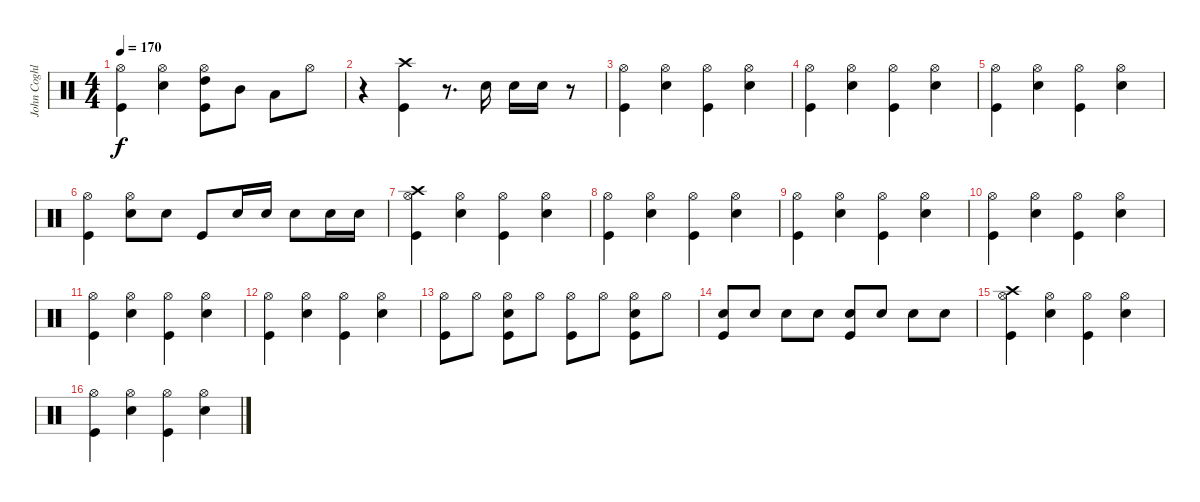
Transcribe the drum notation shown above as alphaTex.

\track ("John Coghlan" "John Coghl") {instrument percussion}
\staff {score}
\articulation defaults
\ts (4 4)
\tempo 170
\clef neutral
\ks c
("Hi-Hat (open)" "Kick (hit)").4{dy f} ("Electric Snare (hit)" "Hi-Hat (open)").4 ("High Tom (hit)" "Hi-Hat (open)" "Kick (hit)").8 "Mid Tom (hit)".8 "Low Tom (hit)".8 "Hi-Hat (open)".8 |
r.4 ("Crash high (hit)" "Kick (hit)").4 r.8{d} "Electric Snare (hit)".16 "Electric Snare (hit)".16 "Electric Snare (hit)".16 r.8 |
("Hi-Hat (open)" "Kick (hit)").4 ("Electric Snare (hit)" "Hi-Hat (open)").4 ("Hi-Hat (open)" "Kick (hit)").4 ("Electric Snare (hit)" "Hi-Hat (open)").4 |
("Hi-Hat (open)" "Kick (hit)").4 ("Electric Snare (hit)" "Hi-Hat (open)").4 ("Hi-Hat (open)" "Kick (hit)").4 ("Electric Snare (hit)" "Hi-Hat (open)").4 |
("Hi-Hat (open)" "Kick (hit)").4 ("Electric Snare (hit)" "Hi-Hat (open)").4 ("Hi-Hat (open)" "Kick (hit)").4 ("Electric Snare (hit)" "Hi-Hat (open)").4 |
("Hi-Hat (open)" "Kick (hit)").4 ("Electric Snare (hit)" "Hi-Hat (open)").8 "Electric Snare (hit)".8 "Kick (hit)".8 "Electric Snare (hit)".16 "Electric Snare (hit)".16 "Electric Snare (hit)".8 "Electric Snare (hit)".16 "Electric Snare (hit)".16 |
("Crash high (hit)" "Hi-Hat (open)" "Kick (hit)").4 ("Electric Snare (hit)" "Hi-Hat (open)").4 ("Hi-Hat (open)" "Kick (hit)").4 ("Electric Snare (hit)" "Hi-Hat (open)").4 |
("Hi-Hat (open)" "Kick (hit)").4 ("Electric Snare (hit)" "Hi-Hat (open)").4 ("Hi-Hat (open)" "Kick (hit)").4 ("Electric Snare (hit)" "Hi-Hat (open)").4 |
("Hi-Hat (open)" "Kick (hit)").4 ("Electric Snare (hit)" "Hi-Hat (open)").4 ("Hi-Hat (open)" "Kick (hit)").4 ("Electric Snare (hit)" "Hi-Hat (open)").4 |
("Hi-Hat (open)" "Kick (hit)").4 ("Electric Snare (hit)" "Hi-Hat (open)").4 ("Hi-Hat (open)" "Kick (hit)").4 ("Electric Snare (hit)" "Hi-Hat (open)").4 |
("Hi-Hat (open)" "Kick (hit)").4 ("Electric Snare (hit)" "Hi-Hat (open)").4 ("Hi-Hat (open)" "Kick (hit)").4 ("Electric Snare (hit)" "Hi-Hat (open)").4 |
("Hi-Hat (open)" "Kick (hit)").4 ("Electric Snare (hit)" "Hi-Hat (open)").4 ("Hi-Hat (open)" "Kick (hit)").4 ("Electric Snare (hit)" "Hi-Hat (open)").4 |
("Hi-Hat (open)" "Kick (hit)").8 "Hi-Hat (open)".8 ("Electric Snare (hit)" "Hi-Hat (open)" "Kick (hit)").8 "Hi-Hat (open)".8 ("Hi-Hat (open)" "Kick (hit)").8 "Hi-Hat (open)".8 ("Electric Snare (hit)" "Hi-Hat (open)" "Kick (hit)").8 "Hi-Hat (open)".8 |
("Electric Snare (hit)" "Kick (hit)").8 "Electric Snare (hit)".8 "Electric Snare (hit)".8 "Electric Snare (hit)".8 ("Electric Snare (hit)" "Kick (hit)").8 "Electric Snare (hit)".8 "Electric Snare (hit)".8 "Electric Snare (hit)".8 |
("Crash high (hit)" "Hi-Hat (open)" "Kick (hit)").4 ("Electric Snare (hit)" "Hi-Hat (open)").4 ("Hi-Hat (open)" "Kick (hit)").4 ("Electric Snare (hit)" "Hi-Hat (open)").4 |
("Hi-Hat (open)" "Kick (hit)").4 ("Electric Snare (hit)" "Hi-Hat (open)").4 ("Hi-Hat (open)" "Kick (hit)").4 ("Electric Snare (hit)" "Hi-Hat (open)").4
